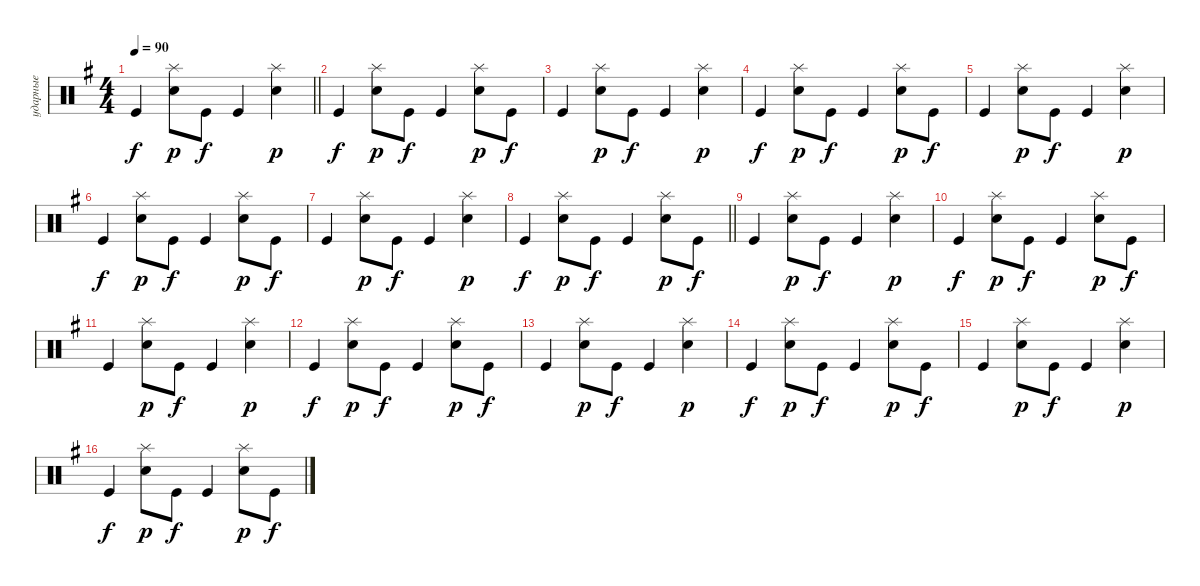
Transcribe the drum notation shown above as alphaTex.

\track ("ударные" "ударные") {instrument percussion}
\staff {score}
\articulation defaults
\ts (4 4)
\tempo 90
\clef neutral
\barLineRight lightlight
\ks eminor "Kick (hit)".4{dy f}
("Splash (hit)" "Snare (hit) 2").8{dy p} "Kick (hit)".8{dy f} "Kick (hit)".4 ("Splash (hit)" "Snare (hit) 2").4{dy p} |
\section ("" "")
"Kick (hit)".4{dy f} ("Splash (hit)" "Snare (hit) 2").8{dy p} "Kick (hit)".8{dy f} "Kick (hit)".4 ("Splash (hit)" "Snare (hit) 2").8{dy p} "Kick (hit)".8{dy f} |
"Kick (hit)".4 ("Splash (hit)" "Snare (hit) 2").8{dy p} "Kick (hit)".8{dy f} "Kick (hit)".4 ("Splash (hit)" "Snare (hit) 2").4{dy p} |
"Kick (hit)".4{dy f} ("Splash (hit)" "Snare (hit) 2").8{dy p} "Kick (hit)".8{dy f} "Kick (hit)".4 ("Splash (hit)" "Snare (hit) 2").8{dy p} "Kick (hit)".8{dy f} |
"Kick (hit)".4 ("Splash (hit)" "Snare (hit) 2").8{dy p} "Kick (hit)".8{dy f} "Kick (hit)".4 ("Splash (hit)" "Snare (hit) 2").4{dy p} |
"Kick (hit)".4{dy f} ("Splash (hit)" "Snare (hit) 2").8{dy p} "Kick (hit)".8{dy f} "Kick (hit)".4 ("Splash (hit)" "Snare (hit) 2").8{dy p} "Kick (hit)".8{dy f} |
"Kick (hit)".4 ("Splash (hit)" "Snare (hit) 2").8{dy p} "Kick (hit)".8{dy f} "Kick (hit)".4 ("Splash (hit)" "Snare (hit) 2").4{dy p} |
\barLineRight lightlight "Kick (hit)".4{dy f}
("Splash (hit)" "Snare (hit) 2").8{dy p} "Kick (hit)".8{dy f} "Kick (hit)".4 ("Splash (hit)" "Snare (hit) 2").8{dy p} "Kick (hit)".8{dy f} |
\section ("" "")
"Kick (hit)".4 ("Splash (hit)" "Snare (hit) 2").8{dy p} "Kick (hit)".8{dy f} "Kick (hit)".4 ("Splash (hit)" "Snare (hit) 2").4{dy p} |
"Kick (hit)".4{dy f} ("Splash (hit)" "Snare (hit) 2").8{dy p} "Kick (hit)".8{dy f} "Kick (hit)".4 ("Splash (hit)" "Snare (hit) 2").8{dy p} "Kick (hit)".8{dy f} |
"Kick (hit)".4 ("Splash (hit)" "Snare (hit) 2").8{dy p} "Kick (hit)".8{dy f} "Kick (hit)".4 ("Splash (hit)" "Snare (hit) 2").4{dy p} |
"Kick (hit)".4{dy f} ("Splash (hit)" "Snare (hit) 2").8{dy p} "Kick (hit)".8{dy f} "Kick (hit)".4 ("Splash (hit)" "Snare (hit) 2").8{dy p} "Kick (hit)".8{dy f} |
"Kick (hit)".4 ("Splash (hit)" "Snare (hit) 2").8{dy p} "Kick (hit)".8{dy f} "Kick (hit)".4 ("Splash (hit)" "Snare (hit) 2").4{dy p} |
"Kick (hit)".4{dy f} ("Splash (hit)" "Snare (hit) 2").8{dy p} "Kick (hit)".8{dy f} "Kick (hit)".4 ("Splash (hit)" "Snare (hit) 2").8{dy p} "Kick (hit)".8{dy f} |
"Kick (hit)".4 ("Splash (hit)" "Snare (hit) 2").8{dy p} "Kick (hit)".8{dy f} "Kick (hit)".4 ("Splash (hit)" "Snare (hit) 2").4{dy p} |
"Kick (hit)".4{dy f} ("Splash (hit)" "Snare (hit) 2").8{dy p} "Kick (hit)".8{dy f} "Kick (hit)".4 ("Splash (hit)" "Snare (hit) 2").8{dy p} "Kick (hit)".8{dy f}
